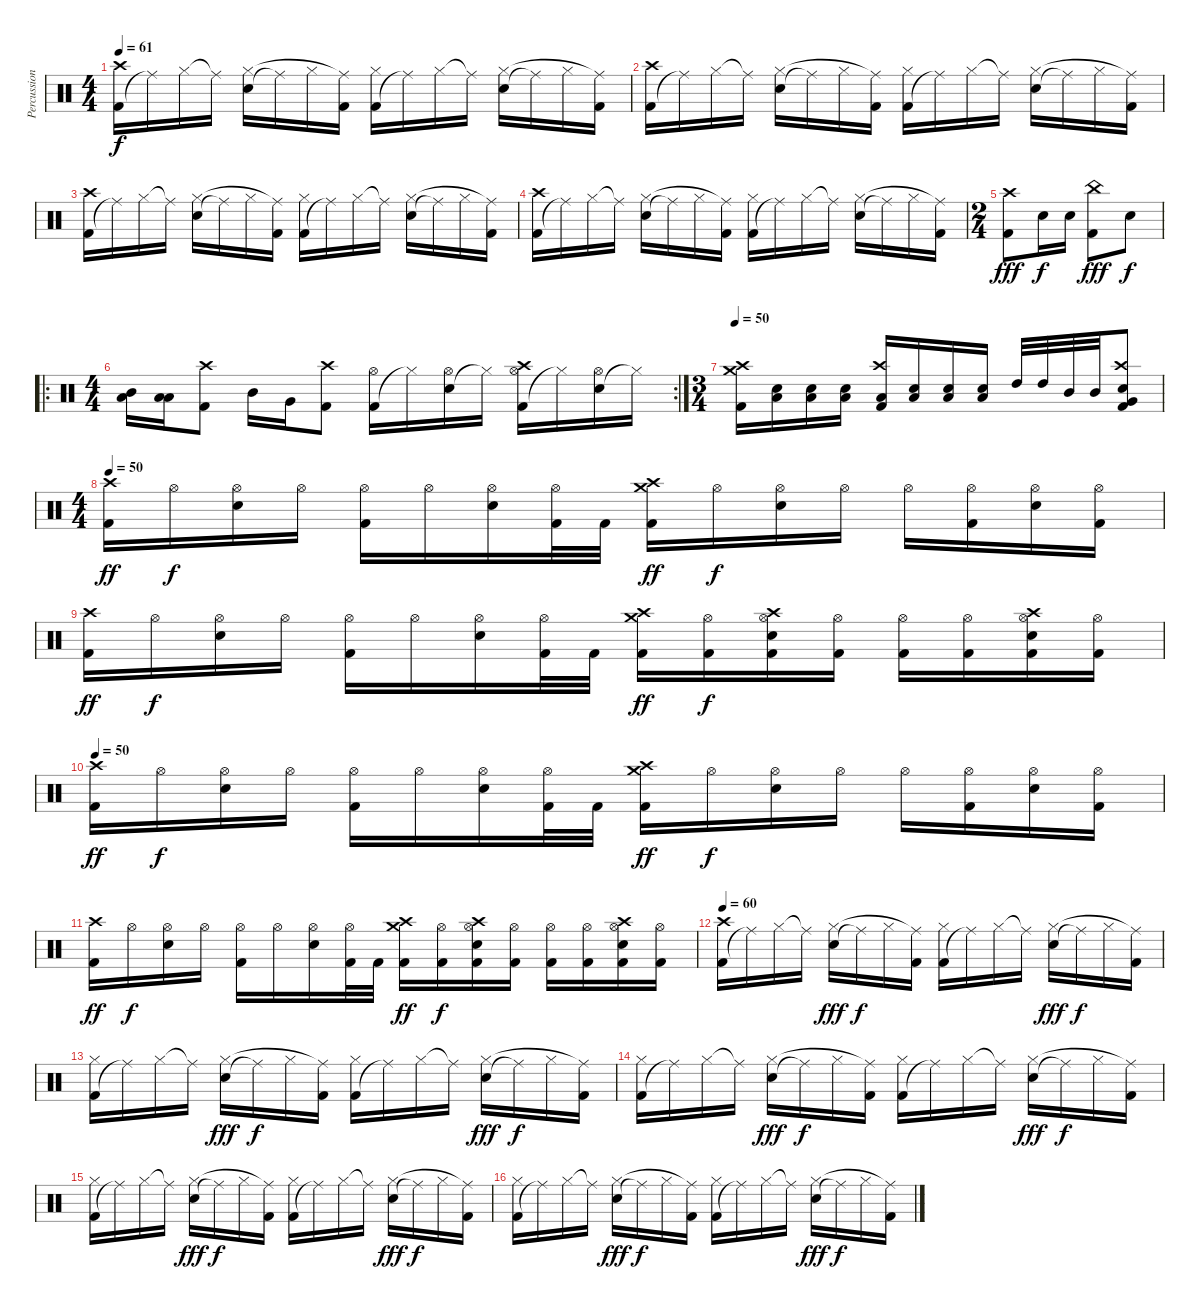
\track ("Percussions" "Percussion") {instrument percussion}
\staff {score}
\articulation defaults
\ts (4 4)
\tempo 61
\clef neutral
\ks c
("Kick (hit) 2" "Crash high (hit)").16{dy f} "Ride (middle)"{t}.16 "Hi-Hat (closed)".16 "Ride (middle)"{t}.16 ("Electric Snare (hit)" "Hi-Hat (closed)").16 "Ride (middle)"{t}.16 "Hi-Hat (closed)".16 ("Kick (hit) 2" "Ride (middle)"{t}).16 ("Kick (hit) 2" "Hi-Hat (closed)").16 "Ride (middle)"{t}.16 "Hi-Hat (closed)".16 "Ride (middle)"{t}.16 ("Electric Snare (hit)" "Hi-Hat (closed)").16 "Ride (middle)"{t}.16 "Hi-Hat (closed)".16 ("Kick (hit) 2" "Ride (middle)"{t}).16 |
("Kick (hit) 2" "Crash high (hit)").16 "Ride (middle)"{t}.16 "Hi-Hat (closed)".16 "Ride (middle)"{t}.16 ("Electric Snare (hit)" "Hi-Hat (closed)").16 "Ride (middle)"{t}.16 "Hi-Hat (closed)".16 ("Kick (hit) 2" "Ride (middle)"{t}).16 ("Kick (hit) 2" "Hi-Hat (closed)").16 "Ride (middle)"{t}.16 "Hi-Hat (closed)".16 "Ride (middle)"{t}.16 ("Electric Snare (hit)" "Hi-Hat (closed)").16 "Ride (middle)"{t}.16 "Hi-Hat (closed)".16 ("Kick (hit) 2" "Ride (middle)"{t}).16 |
("Kick (hit) 2" "Crash high (hit)").16 "Ride (middle)"{t}.16 "Hi-Hat (closed)".16 "Ride (middle)"{t}.16 ("Electric Snare (hit)" "Hi-Hat (closed)").16 "Ride (middle)"{t}.16 "Hi-Hat (closed)".16 ("Kick (hit) 2" "Ride (middle)"{t}).16 ("Kick (hit) 2" "Hi-Hat (closed)").16 "Ride (middle)"{t}.16 "Hi-Hat (closed)".16 "Ride (middle)"{t}.16 ("Electric Snare (hit)" "Hi-Hat (closed)").16 "Ride (middle)"{t}.16 "Hi-Hat (closed)".16 ("Kick (hit) 2" "Ride (middle)"{t}).16 |
("Kick (hit) 2" "Crash high (hit)").16 "Ride (middle)"{t}.16 "Hi-Hat (closed)".16 "Ride (middle)"{t}.16 ("Electric Snare (hit)" "Hi-Hat (closed)").16 "Ride (middle)"{t}.16 "Hi-Hat (closed)".16 ("Kick (hit) 2" "Ride (middle)"{t}).16 ("Kick (hit) 2" "Hi-Hat (closed)").16 "Ride (middle)"{t}.16 "Hi-Hat (closed)".16 "Ride (middle)"{t}.16 ("Electric Snare (hit)" "Hi-Hat (closed)").16 "Ride (middle)"{t}.16 "Hi-Hat (closed)".16 ("Kick (hit) 2" "Ride (middle)"{t}).16 |
\ts (2 4)
("Kick (hit) 2" "Crash high (hit)").8{dy fff} "Electric Snare (hit)".16{dy f} "Electric Snare (hit)".16 ("Kick (hit) 2" "China (hit)").8{dy fff} "Electric Snare (hit)".8{dy f} |
\ro
\rc 2
\ts (4 4)
("Low Floor Tom (hit)" "Mid Tom (hit)").16 ("Low Floor Tom (hit)" "Low Tom (hit)").16 ("Kick (hit) 2" "Crash high (hit)").8 "Mid Tom (hit)".16 "Very Low Tom (hit)".16 ("Kick (hit) 2" "Crash high (hit)").8 ("Kick (hit) 2" "Hi-Hat (open)").16 "Hi-Hat (closed)"{t}.16 ("Snare (hit) 2" "Hi-Hat (open)").16 "Hi-Hat (closed)"{t}.16 ("Kick (hit) 2" "Hi-Hat (open)" "Crash high (hit)").16 "Hi-Hat (closed)"{t}.16 ("Snare (hit) 2" "Hi-Hat (open)").16 "Hi-Hat (closed)"{t}.16 |
\ts (3 4)
\tempo 50
("Crash high (hit)" "Kick (hit) 2" "Crash medium (hit)").16 ("Snare (hit) 2" "Low Floor Tom (hit)").16 ("Snare (hit) 2" "Low Floor Tom (hit)").16 ("Snare (hit) 2" "Low Floor Tom (hit)").16 ("Crash high (hit)" "Kick (hit) 2" "Low Floor Tom (hit)").16 ("Snare (hit) 2" "Low Floor Tom (hit)").16 ("Snare (hit) 2" "Low Floor Tom (hit)").16 ("Snare (hit) 2" "Low Floor Tom (hit)").16 "High Tom (hit)".32 "High Tom (hit)".32 "Mid Tom (hit)".32 "Mid Tom (hit)".32 ("Crash high (hit)" "Snare (hit) 2" "Kick (hit) 2" "Very Low Tom (hit)").8 |
\ts (4 4)
\tempo 50
("Kick (hit) 2" "Crash high (hit)").16{dy ff} "Hi-Hat (open)".16{dy f} ("Snare (hit) 2" "Hi-Hat (open)").16 "Hi-Hat (open)".16 ("Kick (hit) 2" "Hi-Hat (open)").16 "Hi-Hat (open)".16 ("Snare (hit) 2" "Hi-Hat (open)").16 ("Kick (hit) 2" "Hi-Hat (open)").32 "Kick (hit) 2".32 ("Crash medium (hit)" "Kick (hit) 2" "Crash high (hit)").16{dy ff} "Hi-Hat (open)".16{dy f} ("Snare (hit) 2" "Hi-Hat (open)").16 "Hi-Hat (open)".16 "Hi-Hat (open)".16 ("Kick (hit) 2" "Hi-Hat (open)").16 ("Snare (hit) 2" "Hi-Hat (open)").16 ("Kick (hit) 2" "Hi-Hat (open)").16 |
("Kick (hit) 2" "Crash high (hit)").16{dy ff} "Hi-Hat (open)".16{dy f} ("Snare (hit) 2" "Hi-Hat (open)").16 "Hi-Hat (open)".16 ("Kick (hit) 2" "Hi-Hat (open)").16 "Hi-Hat (open)".16 ("Snare (hit) 2" "Hi-Hat (open)").16 ("Kick (hit) 2" "Hi-Hat (open)").32 "Kick (hit) 2".32 ("Crash medium (hit)" "Kick (hit) 2" "Crash high (hit)").16{dy ff} ("Kick (hit) 2" "Hi-Hat (open)").16{dy f} ("Crash high (hit)" "Kick (hit) 2" "Snare (hit) 2" "Hi-Hat (open)").16 ("Kick (hit) 2" "Hi-Hat (open)").16 ("Kick (hit) 2" "Hi-Hat (open)").16 ("Kick (hit) 2" "Hi-Hat (open)").16 ("Crash high (hit)" "Kick (hit) 2" "Snare (hit) 2" "Hi-Hat (open)").16 ("Kick (hit) 2" "Hi-Hat (open)").16 |
\tempo 50
("Kick (hit) 2" "Crash high (hit)").16{dy ff} "Hi-Hat (open)".16{dy f} ("Snare (hit) 2" "Hi-Hat (open)").16 "Hi-Hat (open)".16 ("Kick (hit) 2" "Hi-Hat (open)").16 "Hi-Hat (open)".16 ("Snare (hit) 2" "Hi-Hat (open)").16 ("Kick (hit) 2" "Hi-Hat (open)").32 "Kick (hit) 2".32 ("Crash medium (hit)" "Kick (hit) 2" "Crash high (hit)").16{dy ff} "Hi-Hat (open)".16{dy f} ("Snare (hit) 2" "Hi-Hat (open)").16 "Hi-Hat (open)".16 "Hi-Hat (open)".16 ("Kick (hit) 2" "Hi-Hat (open)").16 ("Snare (hit) 2" "Hi-Hat (open)").16 ("Kick (hit) 2" "Hi-Hat (open)").16 |
("Kick (hit) 2" "Crash high (hit)").16{dy ff} "Hi-Hat (open)".16{dy f} ("Snare (hit) 2" "Hi-Hat (open)").16 "Hi-Hat (open)".16 ("Kick (hit) 2" "Hi-Hat (open)").16 "Hi-Hat (open)".16 ("Snare (hit) 2" "Hi-Hat (open)").16 ("Kick (hit) 2" "Hi-Hat (open)").32 "Kick (hit) 2".32 ("Crash medium (hit)" "Kick (hit) 2" "Crash high (hit)").16{dy ff} ("Kick (hit) 2" "Hi-Hat (open)").16{dy f} ("Crash high (hit)" "Kick (hit) 2" "Snare (hit) 2" "Hi-Hat (open)").16 ("Kick (hit) 2" "Hi-Hat (open)").16 ("Kick (hit) 2" "Hi-Hat (open)").16 ("Kick (hit) 2" "Hi-Hat (open)").16 ("Crash high (hit)" "Kick (hit) 2" "Snare (hit) 2" "Hi-Hat (open)").16 ("Kick (hit) 2" "Hi-Hat (open)").16 |
\tempo 60
("Kick (hit) 2" "Crash high (hit)").16 "Ride (middle)"{t}.16 "Hi-Hat (closed)".16 "Ride (middle)"{t}.16 ("Electric Snare (hit)" "Hi-Hat (closed)").16{dy fff} "Ride (middle)"{t}.16{dy f} "Hi-Hat (closed)".16 ("Kick (hit) 2" "Ride (middle)"{t}).16 ("Kick (hit) 2" "Hi-Hat (closed)").16 "Ride (middle)"{t}.16 "Hi-Hat (closed)".16 "Ride (middle)"{t}.16 ("Electric Snare (hit)" "Hi-Hat (closed)").16{dy fff} "Ride (middle)"{t}.16{dy f} "Hi-Hat (closed)".16 ("Kick (hit) 2" "Ride (middle)"{t}).16 |
("Kick (hit) 2" "Hi-Hat (closed)").16 "Ride (middle)"{t}.16 "Hi-Hat (closed)".16 "Ride (middle)"{t}.16 ("Electric Snare (hit)" "Hi-Hat (closed)").16{dy fff} "Ride (middle)"{t}.16{dy f} "Hi-Hat (closed)".16 ("Kick (hit) 2" "Ride (middle)"{t}).16 ("Kick (hit) 2" "Hi-Hat (closed)").16 "Ride (middle)"{t}.16 "Hi-Hat (closed)".16 "Ride (middle)"{t}.16 ("Electric Snare (hit)" "Hi-Hat (closed)").16{dy fff} "Ride (middle)"{t}.16{dy f} "Hi-Hat (closed)".16 ("Kick (hit) 2" "Ride (middle)"{t}).16 |
("Kick (hit) 2" "Hi-Hat (closed)").16 "Ride (middle)"{t}.16 "Hi-Hat (closed)".16 "Ride (middle)"{t}.16 ("Electric Snare (hit)" "Hi-Hat (closed)").16{dy fff} "Ride (middle)"{t}.16{dy f} "Hi-Hat (closed)".16 ("Kick (hit) 2" "Ride (middle)"{t}).16 ("Kick (hit) 2" "Hi-Hat (closed)").16 "Ride (middle)"{t}.16 "Hi-Hat (closed)".16 "Ride (middle)"{t}.16 ("Electric Snare (hit)" "Hi-Hat (closed)").16{dy fff} "Ride (middle)"{t}.16{dy f} "Hi-Hat (closed)".16 ("Kick (hit) 2" "Ride (middle)"{t}).16 |
("Kick (hit) 2" "Hi-Hat (closed)").16 "Ride (middle)"{t}.16 "Hi-Hat (closed)".16 "Ride (middle)"{t}.16 ("Electric Snare (hit)" "Hi-Hat (closed)").16{dy fff} "Ride (middle)"{t}.16{dy f} "Hi-Hat (closed)".16 ("Kick (hit) 2" "Ride (middle)"{t}).16 ("Kick (hit) 2" "Hi-Hat (closed)").16 "Ride (middle)"{t}.16 "Hi-Hat (closed)".16 "Ride (middle)"{t}.16 ("Electric Snare (hit)" "Hi-Hat (closed)").16{dy fff} "Ride (middle)"{t}.16{dy f} "Hi-Hat (closed)".16 ("Kick (hit) 2" "Ride (middle)"{t}).16 |
("Kick (hit) 2" "Hi-Hat (closed)").16 "Ride (middle)"{t}.16 "Hi-Hat (closed)".16 "Ride (middle)"{t}.16 ("Electric Snare (hit)" "Hi-Hat (closed)").16{dy fff} "Ride (middle)"{t}.16{dy f} "Hi-Hat (closed)".16 ("Kick (hit) 2" "Ride (middle)"{t}).16 ("Kick (hit) 2" "Hi-Hat (closed)").16 "Ride (middle)"{t}.16 "Hi-Hat (closed)".16 "Ride (middle)"{t}.16 ("Electric Snare (hit)" "Hi-Hat (closed)").16{dy fff} "Ride (middle)"{t}.16{dy f} "Hi-Hat (closed)".16 ("Kick (hit) 2" "Ride (middle)"{t}).16
